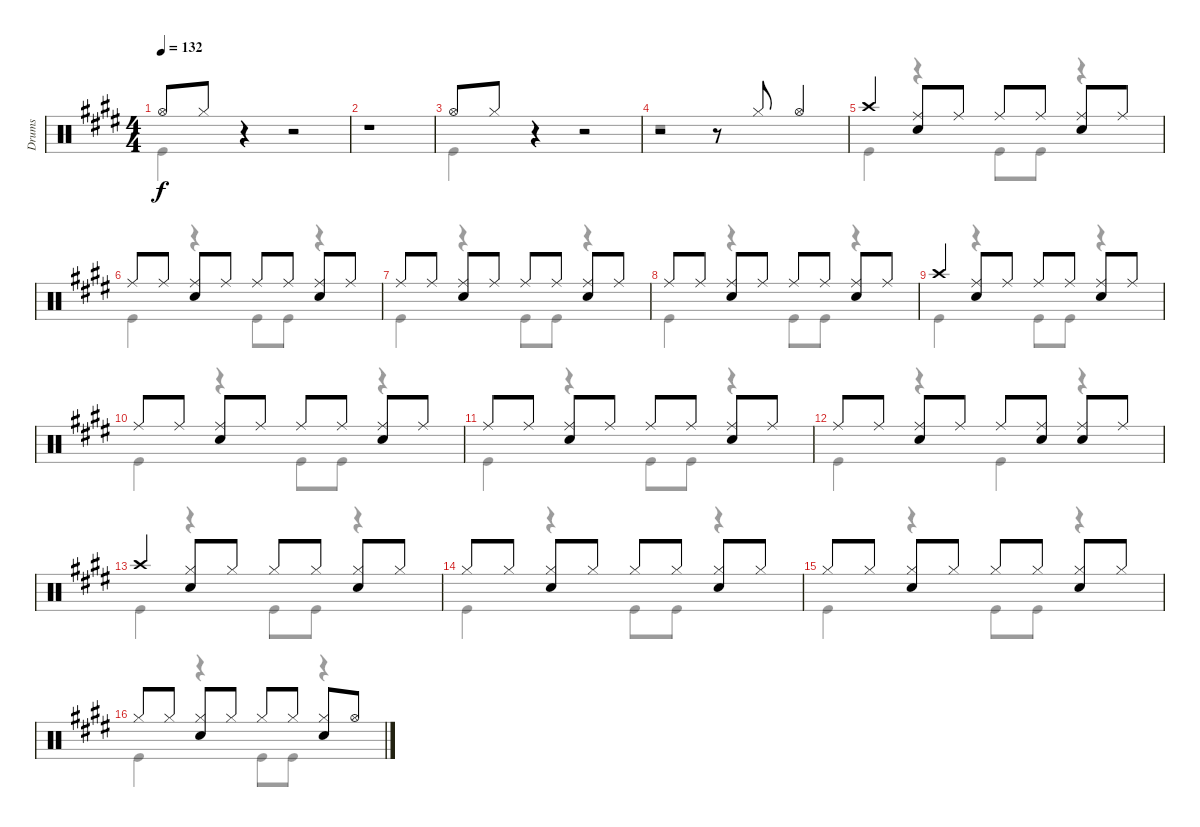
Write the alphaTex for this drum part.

\track ("Drums" "Drums") {instrument percussion}
\staff {score}
\articulation defaults
\voice
\ts (4 4)
\tempo 132
\clef neutral
\ks e "Hi-Hat (open)".8{dy f} "Hi-Hat (closed)".8
r.4 r.2 |
r.1 |
"Hi-Hat (open)".8 "Hi-Hat (closed)".8 r.4 r.2 |
r.2 r.8 "Hi-Hat (closed)".8 "Hi-Hat (open)".4 |
"Crash high (hit)".4 ("Snare (hit) 2" "Ride (middle)").8 "Ride (middle)".8 "Ride (middle)".8 "Ride (middle)".8 ("Snare (hit) 2" "Ride (middle)").8 "Ride (middle)".8 |
"Ride (middle)".8 "Ride (middle)".8 ("Ride (middle)" "Snare (hit) 2").8 "Ride (middle)".8 "Ride (middle)".8 "Ride (middle)".8 ("Ride (middle)" "Snare (hit) 2").8 "Ride (middle)".8 |
"Ride (middle)".8 "Ride (middle)".8 ("Ride (middle)" "Snare (hit) 2").8 "Ride (middle)".8 "Ride (middle)".8 "Ride (middle)".8 ("Ride (middle)" "Snare (hit) 2").8 "Ride (middle)".8 |
"Ride (middle)".8 "Ride (middle)".8 ("Ride (middle)" "Snare (hit) 2").8 "Ride (middle)".8 "Ride (middle)".8 "Ride (middle)".8 ("Ride (middle)" "Snare (hit) 2").8 "Ride (middle)".8 |
"Crash high (hit)".4 ("Ride (middle)" "Snare (hit) 2").8 "Ride (middle)".8 "Ride (middle)".8 "Ride (middle)".8 ("Ride (middle)" "Snare (hit) 2").8 "Ride (middle)".8 |
"Ride (middle)".8 "Ride (middle)".8 ("Ride (middle)" "Snare (hit) 2").8 "Ride (middle)".8 "Ride (middle)".8 "Ride (middle)".8 ("Ride (middle)" "Snare (hit) 2").8 "Ride (middle)".8 |
"Ride (middle)".8 "Ride (middle)".8 ("Ride (middle)" "Snare (hit) 2").8 "Ride (middle)".8 "Ride (middle)".8 "Ride (middle)".8 ("Ride (middle)" "Snare (hit) 2").8 "Ride (middle)".8 |
"Ride (middle)".8 "Ride (middle)".8 ("Ride (middle)" "Snare (hit) 2").8 "Ride (middle)".8 "Ride (middle)".8 ("Ride (middle)" "Snare (hit) 2").8 ("Ride (middle)" "Snare (hit) 2").8 "Ride (middle)".8 |
"Crash high (hit)".4 ("Hi-Hat (closed)" "Snare (hit) 2").8 "Hi-Hat (closed)".8 "Hi-Hat (closed)".8 "Hi-Hat (closed)".8 ("Hi-Hat (closed)" "Snare (hit) 2").8 "Hi-Hat (closed)".8 |
"Hi-Hat (closed)".8 "Hi-Hat (closed)".8 ("Hi-Hat (closed)" "Snare (hit) 2").8 "Hi-Hat (closed)".8 "Hi-Hat (closed)".8 "Hi-Hat (closed)".8 ("Hi-Hat (closed)" "Snare (hit) 2").8 "Hi-Hat (closed)".8 |
"Hi-Hat (closed)".8 "Hi-Hat (closed)".8 ("Hi-Hat (closed)" "Snare (hit) 2").8 "Hi-Hat (closed)".8 "Hi-Hat (closed)".8 "Hi-Hat (closed)".8 ("Hi-Hat (closed)" "Snare (hit) 2").8 "Hi-Hat (closed)".8 |
"Hi-Hat (closed)".8 "Hi-Hat (closed)".8 ("Hi-Hat (closed)" "Snare (hit) 2").8 "Hi-Hat (closed)".8 "Hi-Hat (closed)".8 "Hi-Hat (closed)".8 ("Hi-Hat (closed)" "Snare (hit) 2").8 "Hi-Hat (open)".8
\voice
\clef neutral
\ottava regular
\simile none
\ks e "Kick (hit)".4{dy f}
r.4 r.2 |
r.1 |
"Kick (hit)".4 r.4 r.2 |
r.1 |
"Kick (hit)".4 r.4 "Kick (hit)".8 "Kick (hit)".8 r.4 |
"Kick (hit)".4 r.4 "Kick (hit)".8 "Kick (hit)".8 r.4 |
"Kick (hit)".4 r.4 "Kick (hit)".8 "Kick (hit)".8 r.4 |
"Kick (hit)".4 r.4 "Kick (hit)".8 "Kick (hit)".8 r.4 |
"Kick (hit)".4 r.4 "Kick (hit)".8 "Kick (hit)".8 r.4 |
"Kick (hit)".4 r.4 "Kick (hit)".8 "Kick (hit)".8 r.4 |
"Kick (hit)".4 r.4 "Kick (hit)".8 "Kick (hit)".8 r.4 |
"Kick (hit)".4 r.4 "Kick (hit)".4 r.4 |
"Kick (hit)".4 r.4 "Kick (hit)".8 "Kick (hit)".8 r.4 |
"Kick (hit)".4 r.4 "Kick (hit)".8 "Kick (hit)".8 r.4 |
"Kick (hit)".4 r.4 "Kick (hit)".8 "Kick (hit)".8 r.4 |
"Kick (hit)".4 r.4 "Kick (hit)".8 "Kick (hit)".8 r.4
